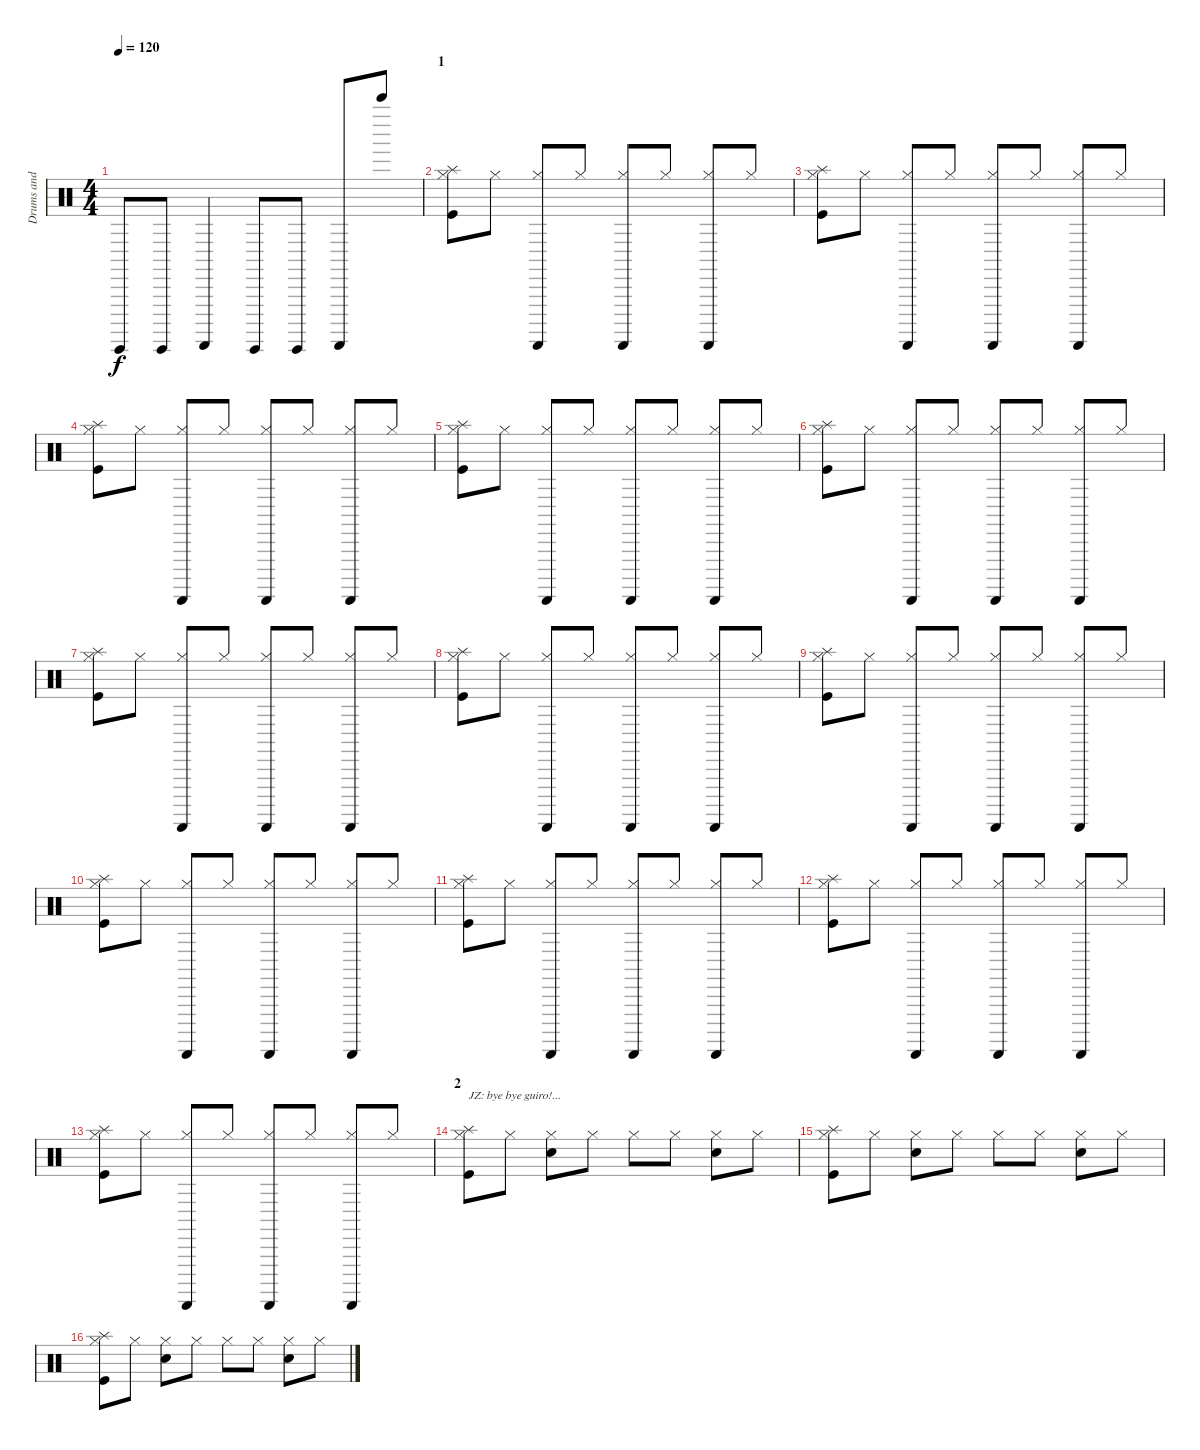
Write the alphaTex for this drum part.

\track ("Drums and Percs" "Drums and ") {instrument percussion}
\staff {score}
\articulation defaults
\ts (4 4)
\tempo 120
\clef neutral
\ks c "Guiro (hit)".8{dy f} "Guiro (hit)".8 "Guiro (scrap-return)".4 "Guiro (hit)".8 "Guiro (hit)".8 "Guiro (scrap-return)".8 "Bell Tree (hit)".8
|
\section ("" "1")
("Splash (hit)" "Kick (hit)" "Hi-Hat (closed)").8 "Hi-Hat (closed)".8 ("Guiro (scrap-return)" "Hi-Hat (closed)").8 "Hi-Hat (closed)".8 ("Guiro (scrap-return)" "Hi-Hat (closed)").8 "Hi-Hat (closed)".8 ("Guiro (scrap-return)" "Hi-Hat (closed)").8 "Hi-Hat (closed)".8 |
("Splash (hit)" "Kick (hit)" "Hi-Hat (closed)").8 "Hi-Hat (closed)".8 ("Guiro (scrap-return)" "Hi-Hat (closed)").8 "Hi-Hat (closed)".8 ("Guiro (scrap-return)" "Hi-Hat (closed)").8 "Hi-Hat (closed)".8 ("Guiro (scrap-return)" "Hi-Hat (closed)").8 "Hi-Hat (closed)".8 |
("Splash (hit)" "Kick (hit)" "Hi-Hat (closed)").8 "Hi-Hat (closed)".8 ("Guiro (scrap-return)" "Hi-Hat (closed)").8 "Hi-Hat (closed)".8 ("Guiro (scrap-return)" "Hi-Hat (closed)").8 "Hi-Hat (closed)".8 ("Guiro (scrap-return)" "Hi-Hat (closed)").8 "Hi-Hat (closed)".8 |
("Splash (hit)" "Kick (hit)" "Hi-Hat (closed)").8 "Hi-Hat (closed)".8 ("Guiro (scrap-return)" "Hi-Hat (closed)").8 "Hi-Hat (closed)".8 ("Guiro (scrap-return)" "Hi-Hat (closed)").8 "Hi-Hat (closed)".8 ("Guiro (scrap-return)" "Hi-Hat (closed)").8 "Hi-Hat (closed)".8 |
("Splash (hit)" "Kick (hit)" "Hi-Hat (closed)").8 "Hi-Hat (closed)".8 ("Guiro (scrap-return)" "Hi-Hat (closed)").8 "Hi-Hat (closed)".8 ("Guiro (scrap-return)" "Hi-Hat (closed)").8 "Hi-Hat (closed)".8 ("Guiro (scrap-return)" "Hi-Hat (closed)").8 "Hi-Hat (closed)".8 |
("Splash (hit)" "Kick (hit)" "Hi-Hat (closed)").8 "Hi-Hat (closed)".8 ("Guiro (scrap-return)" "Hi-Hat (closed)").8 "Hi-Hat (closed)".8 ("Guiro (scrap-return)" "Hi-Hat (closed)").8 "Hi-Hat (closed)".8 ("Guiro (scrap-return)" "Hi-Hat (closed)").8 "Hi-Hat (closed)".8 |
("Splash (hit)" "Kick (hit)" "Hi-Hat (closed)").8 "Hi-Hat (closed)".8 ("Guiro (scrap-return)" "Hi-Hat (closed)").8 "Hi-Hat (closed)".8 ("Guiro (scrap-return)" "Hi-Hat (closed)").8 "Hi-Hat (closed)".8 ("Guiro (scrap-return)" "Hi-Hat (closed)").8 "Hi-Hat (closed)".8 |
("Splash (hit)" "Kick (hit)" "Hi-Hat (closed)").8 "Hi-Hat (closed)".8 ("Guiro (scrap-return)" "Hi-Hat (closed)").8 "Hi-Hat (closed)".8 ("Guiro (scrap-return)" "Hi-Hat (closed)").8 "Hi-Hat (closed)".8 ("Guiro (scrap-return)" "Hi-Hat (closed)").8 "Hi-Hat (closed)".8 |
("Splash (hit)" "Kick (hit)" "Hi-Hat (closed)").8 "Hi-Hat (closed)".8 ("Guiro (scrap-return)" "Hi-Hat (closed)").8 "Hi-Hat (closed)".8 ("Guiro (scrap-return)" "Hi-Hat (closed)").8 "Hi-Hat (closed)".8 ("Guiro (scrap-return)" "Hi-Hat (closed)").8 "Hi-Hat (closed)".8 |
("Splash (hit)" "Kick (hit)" "Hi-Hat (closed)").8 "Hi-Hat (closed)".8 ("Guiro (scrap-return)" "Hi-Hat (closed)").8 "Hi-Hat (closed)".8 ("Guiro (scrap-return)" "Hi-Hat (closed)").8 "Hi-Hat (closed)".8 ("Guiro (scrap-return)" "Hi-Hat (closed)").8 "Hi-Hat (closed)".8 |
("Splash (hit)" "Kick (hit)" "Hi-Hat (closed)").8 "Hi-Hat (closed)".8 ("Guiro (scrap-return)" "Hi-Hat (closed)").8 "Hi-Hat (closed)".8 ("Guiro (scrap-return)" "Hi-Hat (closed)").8 "Hi-Hat (closed)".8 ("Guiro (scrap-return)" "Hi-Hat (closed)").8 "Hi-Hat (closed)".8 |
("Splash (hit)" "Kick (hit)" "Hi-Hat (closed)").8 "Hi-Hat (closed)".8 ("Guiro (scrap-return)" "Hi-Hat (closed)").8 "Hi-Hat (closed)".8 ("Guiro (scrap-return)" "Hi-Hat (closed)").8 "Hi-Hat (closed)".8 ("Guiro (scrap-return)" "Hi-Hat (closed)").8 "Hi-Hat (closed)".8 |
\section ("" "2")
("Splash (hit)" "Kick (hit)" "Hi-Hat (closed)").8{txt "JZ: bye bye guiro!..."} "Hi-Hat (closed)".8 ("Electric Snare (hit)" "Hi-Hat (closed)").8 "Hi-Hat (closed)".8 "Hi-Hat (closed)".8 "Hi-Hat (closed)".8 ("Electric Snare (hit)" "Hi-Hat (closed)").8 "Hi-Hat (closed)".8 |
("Splash (hit)" "Kick (hit)" "Hi-Hat (closed)").8 "Hi-Hat (closed)".8 ("Electric Snare (hit)" "Hi-Hat (closed)").8 "Hi-Hat (closed)".8 "Hi-Hat (closed)".8 "Hi-Hat (closed)".8 ("Electric Snare (hit)" "Hi-Hat (closed)").8 "Hi-Hat (closed)".8 |
("Splash (hit)" "Kick (hit)" "Hi-Hat (closed)").8 "Hi-Hat (closed)".8 ("Electric Snare (hit)" "Hi-Hat (closed)").8 "Hi-Hat (closed)".8 "Hi-Hat (closed)".8 "Hi-Hat (closed)".8 ("Electric Snare (hit)" "Hi-Hat (closed)").8 "Hi-Hat (closed)".8
